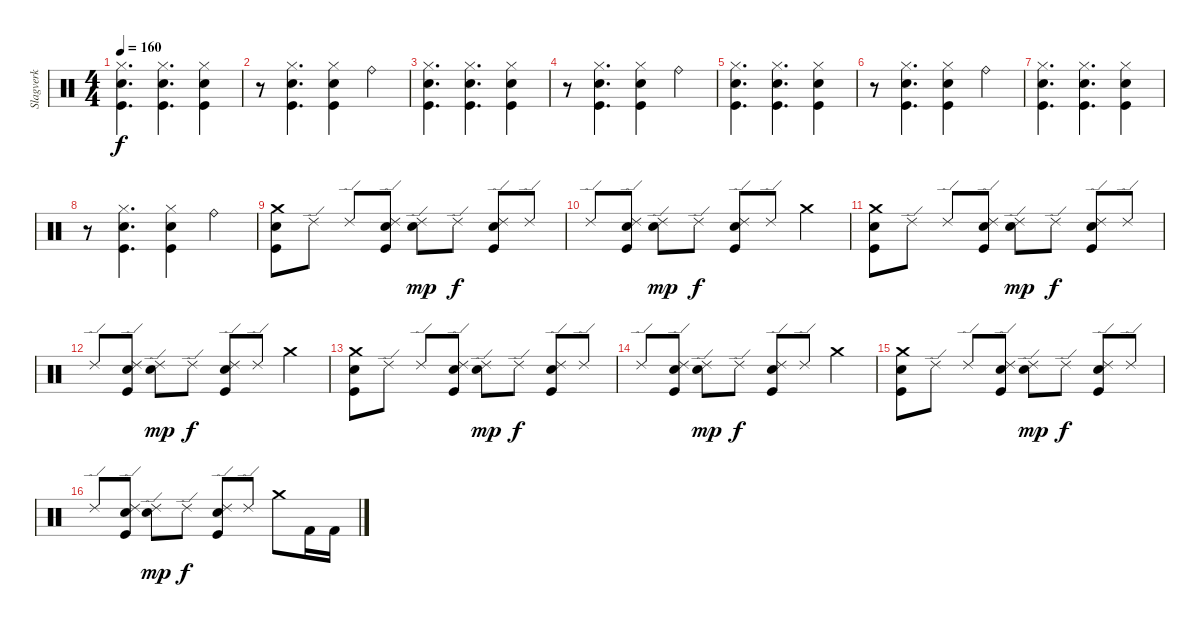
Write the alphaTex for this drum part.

\track ("Slagverk" "Slagverk") {instrument percussion}
\staff {score}
\articulation defaults
\ts (4 4)
\tempo 160
\clef neutral
\ks c
("Hi-Hat (closed)" "Kick (hit)" "Hand Clap (hit)").4{d dy f} ("Hi-Hat (closed)" "Kick (hit)" "Hand Clap (hit)").4{d} ("Hi-Hat (closed)" "Kick (hit)" "Hand Clap (hit)").4 |
r.8 ("Hi-Hat (closed)" "Kick (hit)" "Hand Clap (hit)").4{d} ("Hi-Hat (closed)" "Kick (hit)" "Hand Clap (hit)").4 "Ride (bell)".4 |
("Hi-Hat (closed)" "Kick (hit)" "Hand Clap (hit)").4{d} ("Hi-Hat (closed)" "Kick (hit)" "Hand Clap (hit)").4{d} ("Hi-Hat (closed)" "Kick (hit)" "Hand Clap (hit)").4 |
r.8 ("Hi-Hat (closed)" "Kick (hit)" "Hand Clap (hit)").4{d} ("Hi-Hat (closed)" "Kick (hit)" "Hand Clap (hit)").4 "Ride (bell)".4 |
("Hi-Hat (closed)" "Kick (hit)" "Hand Clap (hit)").4{d} ("Hi-Hat (closed)" "Kick (hit)" "Hand Clap (hit)").4{d} ("Hi-Hat (closed)" "Kick (hit)" "Hand Clap (hit)").4 |
r.8 ("Hi-Hat (closed)" "Kick (hit)" "Hand Clap (hit)").4{d} ("Hi-Hat (closed)" "Kick (hit)" "Hand Clap (hit)").4 "Ride (bell)".4 |
("Hi-Hat (closed)" "Kick (hit)" "Hand Clap (hit)").4{d} ("Hi-Hat (closed)" "Kick (hit)" "Hand Clap (hit)").4{d} ("Hi-Hat (closed)" "Kick (hit)" "Hand Clap (hit)").4 |
r.8 ("Hi-Hat (closed)" "Kick (hit)" "Hand Clap (hit)").4{d} ("Hi-Hat (closed)" "Kick (hit)" "Hand Clap (hit)").4 "Ride (bell)".4 |
("Crash medium (hit)" "Kick (hit)" "Hand Clap (hit)").8 "Ride (edge) 2".8 "Ride (edge) 2".8 ("Ride (edge) 2" "Kick (hit)" "Hand Clap (hit)").8 ("Ride (edge) 2" "Snare (hit) 2").8{dy mp} "Ride (edge) 2".8{dy f} ("Ride (edge) 2" "Kick (hit)" "Hand Clap (hit)").8 "Ride (edge) 2".8 |
"Ride (edge) 2".8 ("Ride (edge) 2" "Kick (hit)" "Hand Clap (hit)").8 ("Ride (edge) 2" "Snare (hit) 2").8{dy mp} "Ride (edge) 2".8{dy f} ("Ride (edge) 2" "Kick (hit)" "Hand Clap (hit)").8 "Ride (edge) 2".8 "Crash medium (hit)".4 |
("Crash medium (hit)" "Kick (hit)" "Hand Clap (hit)").8 "Ride (edge) 2".8 "Ride (edge) 2".8 ("Ride (edge) 2" "Kick (hit)" "Hand Clap (hit)").8 ("Ride (edge) 2" "Snare (hit) 2").8{dy mp} "Ride (edge) 2".8{dy f} ("Ride (edge) 2" "Kick (hit)" "Hand Clap (hit)").8 "Ride (edge) 2".8 |
"Ride (edge) 2".8 ("Ride (edge) 2" "Kick (hit)" "Hand Clap (hit)").8 ("Ride (edge) 2" "Snare (hit) 2").8{dy mp} "Ride (edge) 2".8{dy f} ("Ride (edge) 2" "Kick (hit)" "Hand Clap (hit)").8 "Ride (edge) 2".8 "Crash medium (hit)".4 |
("Crash medium (hit)" "Kick (hit)" "Hand Clap (hit)").8 "Ride (edge) 2".8 "Ride (edge) 2".8 ("Ride (edge) 2" "Kick (hit)" "Hand Clap (hit)").8 ("Ride (edge) 2" "Snare (hit) 2").8{dy mp} "Ride (edge) 2".8{dy f} ("Ride (edge) 2" "Kick (hit)" "Hand Clap (hit)").8 "Ride (edge) 2".8 |
"Ride (edge) 2".8 ("Ride (edge) 2" "Kick (hit)" "Hand Clap (hit)").8 ("Ride (edge) 2" "Snare (hit) 2").8{dy mp} "Ride (edge) 2".8{dy f} ("Ride (edge) 2" "Kick (hit)" "Hand Clap (hit)").8 "Ride (edge) 2".8 "Crash medium (hit)".4 |
("Crash medium (hit)" "Kick (hit)" "Hand Clap (hit)").8 "Ride (edge) 2".8 "Ride (edge) 2".8 ("Ride (edge) 2" "Kick (hit)" "Hand Clap (hit)").8 ("Ride (edge) 2" "Snare (hit) 2").8{dy mp} "Ride (edge) 2".8{dy f} ("Ride (edge) 2" "Kick (hit)" "Hand Clap (hit)").8 "Ride (edge) 2".8 |
"Ride (edge) 2".8 ("Ride (edge) 2" "Kick (hit)" "Hand Clap (hit)").8 ("Ride (edge) 2" "Snare (hit) 2").8{dy mp} "Ride (edge) 2".8{dy f} ("Ride (edge) 2" "Kick (hit)" "Hand Clap (hit)").8 "Ride (edge) 2".8 "Crash medium (hit)".8 "Kick (hit) 2".16 "Kick (hit) 2".16
